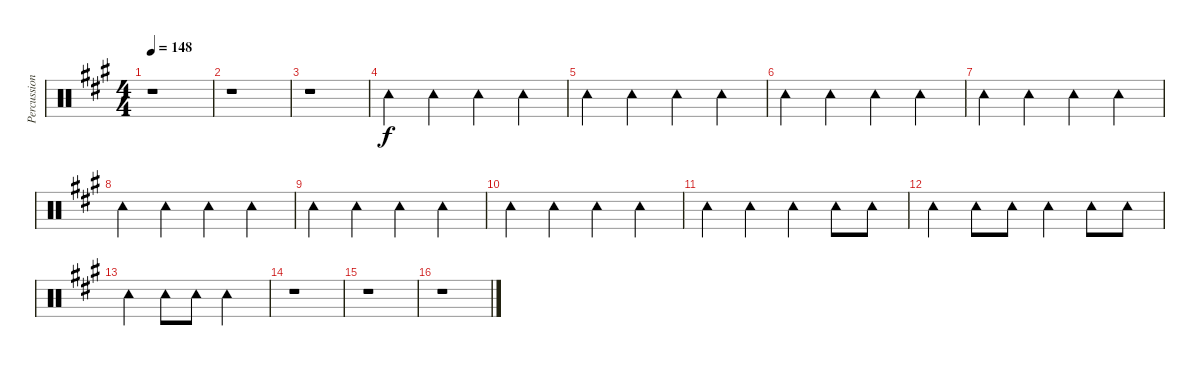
\track ("Percussion" "Percussion") {instrument percussion}
\staff {score}
\articulation defaults
\ts (4 4)
\tempo 148
\clef neutral
\ks a
r.1{dy f} |
r.1 |
r.1 |
"Tambourine (hit)".4 "Tambourine (hit)".4 "Tambourine (hit)".4 "Tambourine (hit)".4 |
"Tambourine (hit)".4 "Tambourine (hit)".4 "Tambourine (hit)".4 "Tambourine (hit)".4 |
"Tambourine (hit)".4 "Tambourine (hit)".4 "Tambourine (hit)".4 "Tambourine (hit)".4 |
"Tambourine (hit)".4 "Tambourine (hit)".4 "Tambourine (hit)".4 "Tambourine (hit)".4 |
"Tambourine (hit)".4 "Tambourine (hit)".4 "Tambourine (hit)".4 "Tambourine (hit)".4 |
"Tambourine (hit)".4 "Tambourine (hit)".4 "Tambourine (hit)".4 "Tambourine (hit)".4 |
"Tambourine (hit)".4 "Tambourine (hit)".4 "Tambourine (hit)".4 "Tambourine (hit)".4 |
"Tambourine (hit)".4 "Tambourine (hit)".4 "Tambourine (hit)".4 "Tambourine (hit)".8 "Tambourine (hit)".8 |
"Tambourine (hit)".4 "Tambourine (hit)".8 "Tambourine (hit)".8 "Tambourine (hit)".4 "Tambourine (hit)".8 "Tambourine (hit)".8 |
"Tambourine (hit)".4 "Tambourine (hit)".8 "Tambourine (hit)".8 "Tambourine (hit)".2 |
r.1 |
r.1 |
r.1
